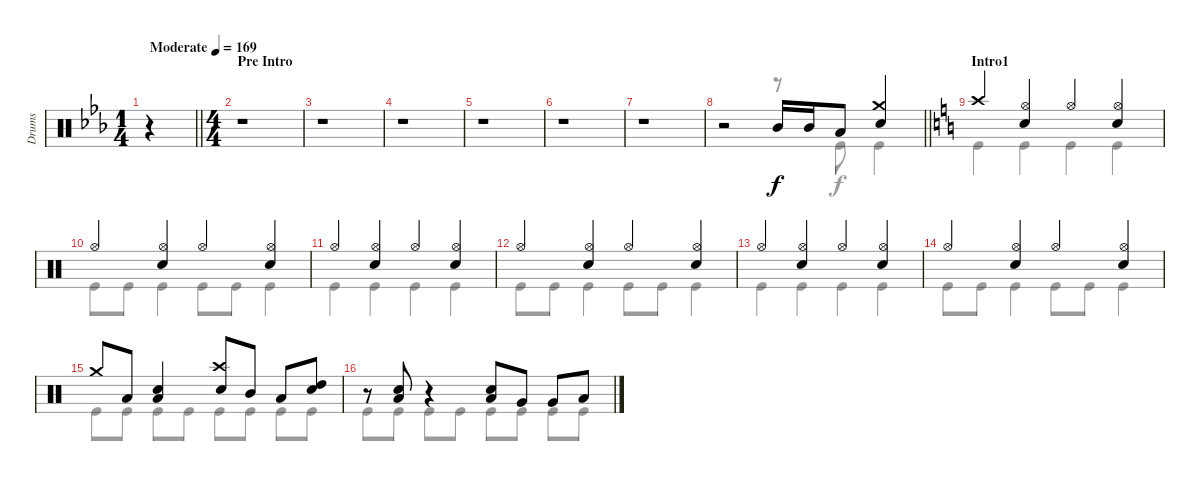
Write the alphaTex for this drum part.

\track ("Drums" "Drums") {instrument percussion}
\staff {score}
\articulation defaults
\voice
\ts (1 4)
\tempo (169 "Moderate")
\clef neutral
\barLineRight lightlight
\ks eb
r.4{dy f} |
\ts (4 4)
\section ("" "Pre Intro")
r.1 |
r.1 |
r.1 |
r.1 |
r.1 |
r.1 |
\barLineRight lightlight
r.2 "Mid Tom (hit)".16 "Mid Tom (hit)".16 "Low Tom (hit)".8 ("Crash medium (hit)" "Snare (hit) 2").4 |
\section ("" "Intro1")
\ks c "Crash high (hit)".4
("Hi-Hat (open)" "Snare (hit) 2").4 "Hi-Hat (open)".4 ("Hi-Hat (open)" "Snare (hit) 2").4 |
"Hi-Hat (open)".4 ("Hi-Hat (open)" "Snare (hit) 2").4 "Hi-Hat (open)".4 ("Hi-Hat (open)" "Snare (hit) 2").4 |
"Hi-Hat (open)".4 ("Hi-Hat (open)" "Snare (hit) 2").4 "Hi-Hat (open)".4 ("Hi-Hat (open)" "Snare (hit) 2").4 |
"Hi-Hat (open)".4 ("Hi-Hat (open)" "Snare (hit) 2").4 "Hi-Hat (open)".4 ("Hi-Hat (open)" "Snare (hit) 2").4 |
"Hi-Hat (open)".4 ("Hi-Hat (open)" "Snare (hit) 2").4 "Hi-Hat (open)".4 ("Hi-Hat (open)" "Snare (hit) 2").4 |
"Hi-Hat (open)".4 ("Hi-Hat (open)" "Snare (hit) 2").4 "Hi-Hat (open)".4 ("Hi-Hat (open)" "Snare (hit) 2").4 |
"Crash medium (hit)".8 "Low Tom (hit)".8 ("Low Tom (hit)" "Snare (hit) 2").4 ("Crash high (hit)" "Snare (hit) 2").8 "Mid Tom (hit)".8 "Low Tom (hit)".8 ("High Tom (hit)" "Snare (hit) 2").8 |
r.8 ("Low Tom (hit)" "Snare (hit) 2").8 r.4 ("Low Tom (hit)" "Snare (hit) 2").8 "Very Low Tom (hit)".8 "Very Low Tom (hit)".8 "Low Tom (hit)".8
\voice
\clef neutral
\ottava regular
\simile none
\barLineRight lightlight
\ks eb
r.4{dy f} |
r.1 |
r.1 |
r.1 |
r.1 |
r.1 |
r.1 |
\barLineRight lightlight
r.2 r.8 "Kick (hit)".8 "Kick (hit)".4 |
\ks c "Kick (hit)".4 "Kick (hit)".4 "Kick (hit)".4 "Kick (hit)".4
|
"Kick (hit)".8 "Kick (hit)".8 "Kick (hit)".4 "Kick (hit)".8 "Kick (hit)".8 "Kick (hit)".4 |
"Kick (hit)".4 "Kick (hit)".4 "Kick (hit)".4 "Kick (hit)".4 |
"Kick (hit)".8 "Kick (hit)".8 "Kick (hit)".4 "Kick (hit)".8 "Kick (hit)".8 "Kick (hit)".4 |
"Kick (hit)".4 "Kick (hit)".4 "Kick (hit)".4 "Kick (hit)".4 |
"Kick (hit)".8 "Kick (hit)".8 "Kick (hit)".4 "Kick (hit)".8 "Kick (hit)".8 "Kick (hit)".4 |
"Kick (hit)".8 "Kick (hit)".8 "Kick (hit)".8 "Kick (hit)".8 "Kick (hit)".8 "Kick (hit)".8 "Kick (hit)".8 "Kick (hit)".8 |
"Kick (hit)".8 "Kick (hit)".8 "Kick (hit)".8 "Kick (hit)".8 "Kick (hit)".8 "Kick (hit)".8 "Kick (hit)".8 "Kick (hit)".8
